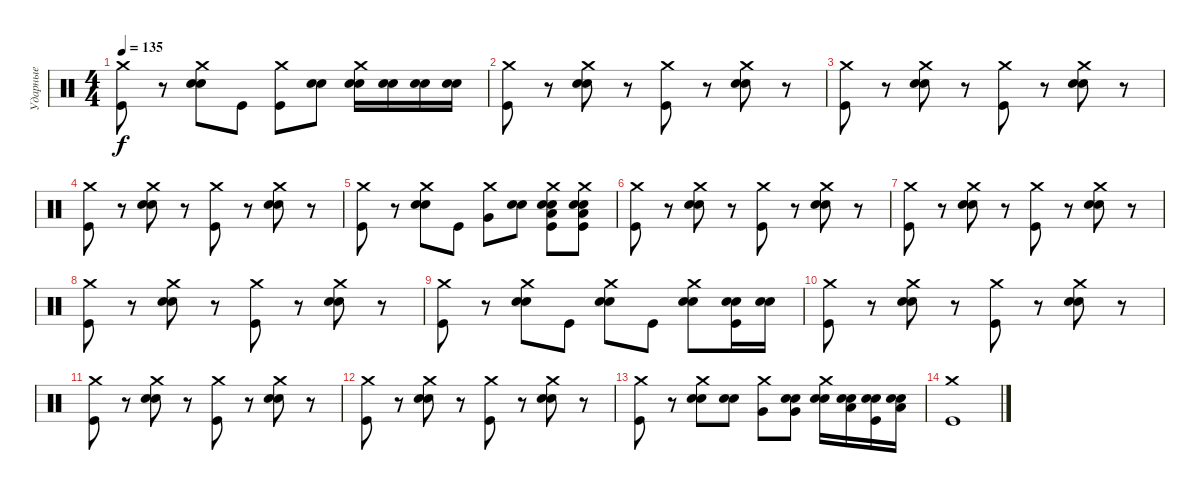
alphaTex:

\track ("Ударные" "Ударные") {instrument percussion}
\staff {score}
\articulation defaults
\ts (4 4)
\tempo 135
\clef neutral
\ks c
("Crash medium (hit)" "Kick (hit)").8{dy f} r.8 ("Crash medium (hit)" "Electric Snare (hit)" "Electric Snare (hit)").8 "Kick (hit)".8 ("Crash medium (hit)" "Kick (hit)").8 ("Electric Snare (hit)" "Electric Snare (hit)").8 ("Crash medium (hit)" "Electric Snare (hit)" "Electric Snare (hit)").16 ("Electric Snare (hit)" "Electric Snare (hit)").16 ("Electric Snare (hit)" "Electric Snare (hit)").16 ("Electric Snare (hit)" "Electric Snare (hit)").16 |
("Crash medium (hit)" "Kick (hit)").8 r.8 ("Crash medium (hit)" "Electric Snare (hit)" "Electric Snare (hit)").8 r.8 ("Crash medium (hit)" "Kick (hit)").8 r.8 ("Crash medium (hit)" "Electric Snare (hit)" "Electric Snare (hit)").8 r.8 |
("Crash medium (hit)" "Kick (hit)").8 r.8 ("Crash medium (hit)" "Electric Snare (hit)" "Electric Snare (hit)").8 r.8 ("Crash medium (hit)" "Kick (hit)").8 r.8 ("Crash medium (hit)" "Electric Snare (hit)" "Electric Snare (hit)").8 r.8 |
("Crash medium (hit)" "Kick (hit)").8 r.8 ("Crash medium (hit)" "Electric Snare (hit)" "Electric Snare (hit)").8 r.8 ("Crash medium (hit)" "Kick (hit)").8 r.8 ("Crash medium (hit)" "Electric Snare (hit)" "Electric Snare (hit)").8 r.8 |
("Crash medium (hit)" "Kick (hit)").8 r.8 ("Crash medium (hit)" "Electric Snare (hit)" "Electric Snare (hit)").8 "Kick (hit)".8 ("Crash medium (hit)" "Very Low Tom (hit)").8 ("Electric Snare (hit)" "Electric Snare (hit)").8 ("Crash medium (hit)" "Electric Snare (hit)" "Electric Snare (hit)" "Low Floor Tom (hit)" "Kick (hit)").8 ("Crash medium (hit)" "Electric Snare (hit)" "Electric Snare (hit)" "Low Floor Tom (hit)" "Kick (hit)").8 |
("Crash medium (hit)" "Kick (hit)").8 r.8 ("Crash medium (hit)" "Electric Snare (hit)" "Electric Snare (hit)").8 r.8 ("Crash medium (hit)" "Kick (hit)").8 r.8 ("Crash medium (hit)" "Electric Snare (hit)" "Electric Snare (hit)").8 r.8 |
("Crash medium (hit)" "Kick (hit)").8 r.8 ("Crash medium (hit)" "Electric Snare (hit)" "Electric Snare (hit)").8 r.8 ("Crash medium (hit)" "Kick (hit)").8 r.8 ("Crash medium (hit)" "Electric Snare (hit)" "Electric Snare (hit)").8 r.8 |
("Crash medium (hit)" "Kick (hit)").8 r.8 ("Crash medium (hit)" "Electric Snare (hit)" "Electric Snare (hit)").8 r.8 ("Crash medium (hit)" "Kick (hit)").8 r.8 ("Crash medium (hit)" "Electric Snare (hit)" "Electric Snare (hit)").8 r.8 |
("Crash medium (hit)" "Kick (hit)").8 r.8 ("Crash medium (hit)" "Electric Snare (hit)" "Electric Snare (hit)").8 "Kick (hit)".8 ("Crash medium (hit)" "Electric Snare (hit)" "Electric Snare (hit)").8 "Kick (hit)".8 ("Crash medium (hit)" "Electric Snare (hit)" "Electric Snare (hit)").8 ("Electric Snare (hit)" "Electric Snare (hit)" "Kick (hit)").16 ("Electric Snare (hit)" "Electric Snare (hit)").16 |
("Crash medium (hit)" "Kick (hit)").8 r.8 ("Crash medium (hit)" "Electric Snare (hit)" "Electric Snare (hit)").8 r.8 ("Crash medium (hit)" "Kick (hit)").8 r.8 ("Crash medium (hit)" "Electric Snare (hit)" "Electric Snare (hit)").8 r.8 |
("Crash medium (hit)" "Kick (hit)").8 r.8 ("Crash medium (hit)" "Electric Snare (hit)" "Electric Snare (hit)").8 r.8 ("Crash medium (hit)" "Kick (hit)").8 r.8 ("Crash medium (hit)" "Electric Snare (hit)" "Electric Snare (hit)").8 r.8 |
("Crash medium (hit)" "Kick (hit)").8 r.8 ("Crash medium (hit)" "Electric Snare (hit)" "Electric Snare (hit)").8 r.8 ("Crash medium (hit)" "Kick (hit)").8 r.8 ("Crash medium (hit)" "Electric Snare (hit)" "Electric Snare (hit)").8 r.8 |
("Crash medium (hit)" "Kick (hit)").8 r.8 ("Crash medium (hit)" "Electric Snare (hit)" "Electric Snare (hit)").8 ("Electric Snare (hit)" "Electric Snare (hit)").8 ("Crash medium (hit)" "Very Low Tom (hit)").8 ("Electric Snare (hit)" "Electric Snare (hit)" "Very Low Tom (hit)").8 ("Crash medium (hit)" "Electric Snare (hit)" "Electric Snare (hit)").16 ("Electric Snare (hit)" "Electric Snare (hit)" "Low Floor Tom (hit)").16 ("Electric Snare (hit)" "Electric Snare (hit)" "Kick (hit)").16 ("Electric Snare (hit)" "Electric Snare (hit)" "Low Floor Tom (hit)").16 |
("Crash medium (hit)" "Kick (hit)").1
